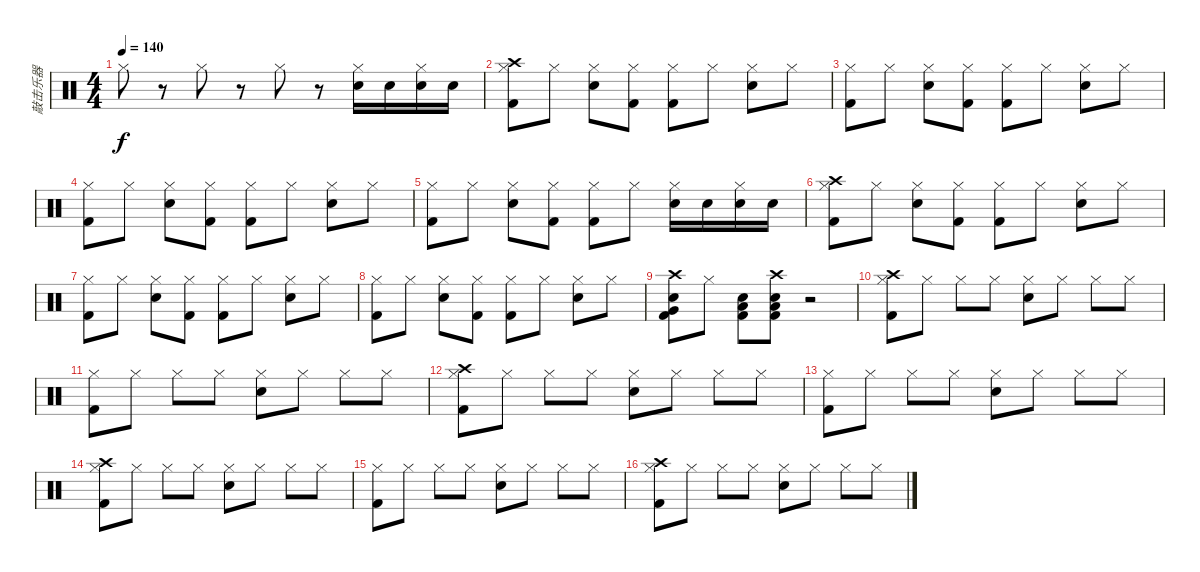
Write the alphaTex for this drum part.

\track ("敲击乐器" "敲击乐器") {instrument percussion}
\staff {score}
\articulation defaults
\ts (4 4)
\tempo 140
\clef neutral
\ks c "Hi-Hat (closed)".8{dy f}
r.8 "Hi-Hat (closed)".8 r.8 "Hi-Hat (closed)".8 r.8 ("Hi-Hat (closed)" "Electric Snare (hit)").16 "Electric Snare (hit)".16 ("Hi-Hat (closed)" "Electric Snare (hit)").16 "Electric Snare (hit)".16 |
("Kick (hit) 2" "Hi-Hat (closed)" "Crash high (hit)").8 "Hi-Hat (closed)".8 ("Hi-Hat (closed)" "Electric Snare (hit)").8 ("Hi-Hat (closed)" "Kick (hit) 2").8 ("Hi-Hat (closed)" "Kick (hit) 2").8 "Hi-Hat (closed)".8 ("Hi-Hat (closed)" "Electric Snare (hit)").8 "Hi-Hat (closed)".8 |
("Kick (hit) 2" "Hi-Hat (closed)").8 "Hi-Hat (closed)".8 ("Hi-Hat (closed)" "Electric Snare (hit)").8 ("Hi-Hat (closed)" "Kick (hit) 2").8 ("Hi-Hat (closed)" "Kick (hit) 2").8 "Hi-Hat (closed)".8 ("Hi-Hat (closed)" "Electric Snare (hit)").8 "Hi-Hat (closed)".8 |
("Kick (hit) 2" "Hi-Hat (closed)").8 "Hi-Hat (closed)".8 ("Hi-Hat (closed)" "Electric Snare (hit)").8 ("Hi-Hat (closed)" "Kick (hit) 2").8 ("Hi-Hat (closed)" "Kick (hit) 2").8 "Hi-Hat (closed)".8 ("Hi-Hat (closed)" "Electric Snare (hit)").8 "Hi-Hat (closed)".8 |
("Kick (hit) 2" "Hi-Hat (closed)").8 "Hi-Hat (closed)".8 ("Hi-Hat (closed)" "Electric Snare (hit)").8 ("Hi-Hat (closed)" "Kick (hit) 2").8 ("Hi-Hat (closed)" "Kick (hit) 2").8 "Hi-Hat (closed)".8 ("Hi-Hat (closed)" "Electric Snare (hit)").16 "Electric Snare (hit)".16 ("Hi-Hat (closed)" "Electric Snare (hit)").16 "Electric Snare (hit)".16 |
("Kick (hit) 2" "Hi-Hat (closed)" "Crash high (hit)").8 "Hi-Hat (closed)".8 ("Hi-Hat (closed)" "Electric Snare (hit)").8 ("Hi-Hat (closed)" "Kick (hit) 2").8 ("Hi-Hat (closed)" "Kick (hit) 2").8 "Hi-Hat (closed)".8 ("Hi-Hat (closed)" "Electric Snare (hit)").8 "Hi-Hat (closed)".8 |
("Kick (hit) 2" "Hi-Hat (closed)").8 "Hi-Hat (closed)".8 ("Hi-Hat (closed)" "Electric Snare (hit)").8 ("Hi-Hat (closed)" "Kick (hit) 2").8 ("Hi-Hat (closed)" "Kick (hit) 2").8 "Hi-Hat (closed)".8 ("Hi-Hat (closed)" "Electric Snare (hit)").8 "Hi-Hat (closed)".8 |
("Kick (hit) 2" "Hi-Hat (closed)").8 "Hi-Hat (closed)".8 ("Hi-Hat (closed)" "Electric Snare (hit)").8 ("Hi-Hat (closed)" "Kick (hit) 2").8 ("Hi-Hat (closed)" "Kick (hit) 2").8 "Hi-Hat (closed)".8 ("Hi-Hat (closed)" "Electric Snare (hit)").8 "Hi-Hat (closed)".8 |
("Electric Snare (hit)" "Very Low Tom (hit)" "Kick (hit) 2" "Crash high (hit)").8 "Hi-Hat (closed)".8 ("Low Floor Tom (hit)" "Electric Snare (hit)" "Kick (hit) 2").8 ("Electric Snare (hit)" "Low Floor Tom (hit)" "Kick (hit) 2" "Crash high (hit)").8 r.2 |
("Kick (hit) 2" "Hi-Hat (closed)" "Crash high (hit)").8 "Hi-Hat (closed)".8 "Hi-Hat (closed)".8 "Hi-Hat (closed)".8 ("Hi-Hat (closed)" "Electric Snare (hit)").8 "Hi-Hat (closed)".8 "Hi-Hat (closed)".8 "Hi-Hat (closed)".8 |
("Kick (hit) 2" "Hi-Hat (closed)").8 "Hi-Hat (closed)".8 "Hi-Hat (closed)".8 "Hi-Hat (closed)".8 ("Hi-Hat (closed)" "Electric Snare (hit)").8 "Hi-Hat (closed)".8 "Hi-Hat (closed)".8 "Hi-Hat (closed)".8 |
("Kick (hit) 2" "Hi-Hat (closed)" "Crash high (hit)").8 "Hi-Hat (closed)".8 "Hi-Hat (closed)".8 "Hi-Hat (closed)".8 ("Hi-Hat (closed)" "Electric Snare (hit)").8 "Hi-Hat (closed)".8 "Hi-Hat (closed)".8 "Hi-Hat (closed)".8 |
("Kick (hit) 2" "Hi-Hat (closed)").8 "Hi-Hat (closed)".8 "Hi-Hat (closed)".8 "Hi-Hat (closed)".8 ("Hi-Hat (closed)" "Electric Snare (hit)").8 "Hi-Hat (closed)".8 "Hi-Hat (closed)".8 "Hi-Hat (closed)".8 |
("Kick (hit) 2" "Hi-Hat (closed)" "Crash high (hit)").8 "Hi-Hat (closed)".8 "Hi-Hat (closed)".8 "Hi-Hat (closed)".8 ("Hi-Hat (closed)" "Electric Snare (hit)").8 "Hi-Hat (closed)".8 "Hi-Hat (closed)".8 "Hi-Hat (closed)".8 |
("Kick (hit) 2" "Hi-Hat (closed)").8 "Hi-Hat (closed)".8 "Hi-Hat (closed)".8 "Hi-Hat (closed)".8 ("Hi-Hat (closed)" "Electric Snare (hit)").8 "Hi-Hat (closed)".8 "Hi-Hat (closed)".8 "Hi-Hat (closed)".8 |
("Kick (hit) 2" "Hi-Hat (closed)" "Crash high (hit)").8 "Hi-Hat (closed)".8 "Hi-Hat (closed)".8 "Hi-Hat (closed)".8 ("Hi-Hat (closed)" "Electric Snare (hit)").8 "Hi-Hat (closed)".8 "Hi-Hat (closed)".8 "Hi-Hat (closed)".8
